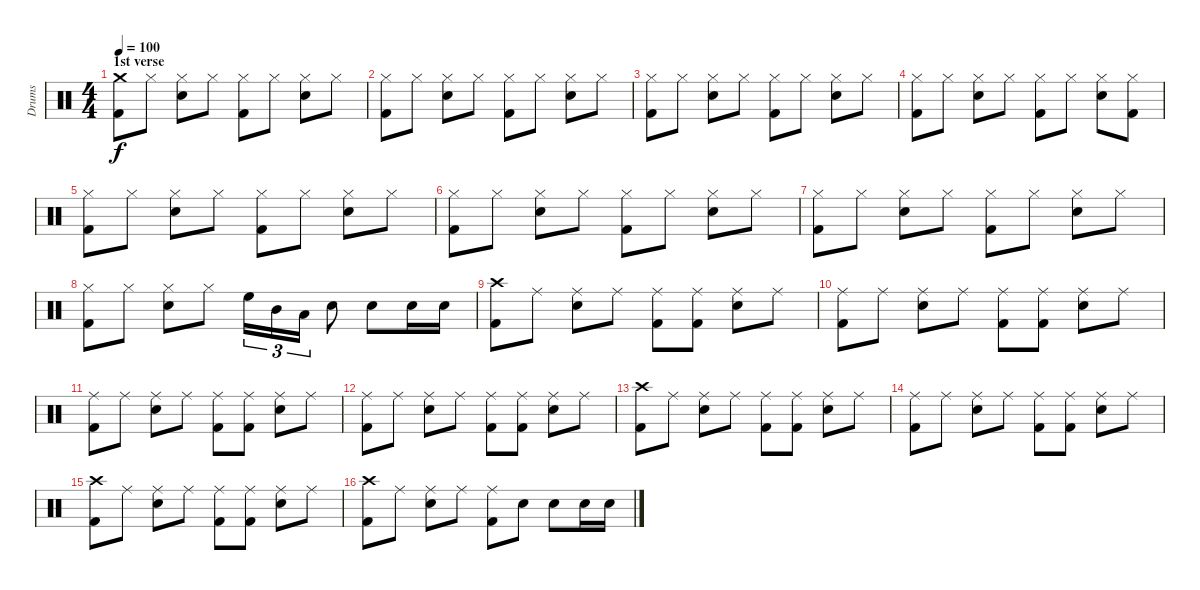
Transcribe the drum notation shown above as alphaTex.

\track ("Drums" "Drums") {instrument percussion}
\staff {score}
\articulation defaults
\ts (4 4)
\section ("" "1st verse")
\tempo 100
\clef neutral
\ks c
("Crash medium (hit)" "Kick (hit) 2").8{dy f} "Hi-Hat (closed)".8 ("Hi-Hat (closed)" "Snare (hit) 2").8 "Hi-Hat (closed)".8 ("Hi-Hat (closed)" "Kick (hit) 2").8 "Hi-Hat (closed)".8 ("Hi-Hat (closed)" "Snare (hit) 2").8 "Hi-Hat (closed)".8 |
("Hi-Hat (closed)" "Kick (hit) 2").8 "Hi-Hat (closed)".8 ("Hi-Hat (closed)" "Snare (hit) 2").8 "Hi-Hat (closed)".8 ("Hi-Hat (closed)" "Kick (hit) 2").8 "Hi-Hat (closed)".8 ("Hi-Hat (closed)" "Snare (hit) 2").8 "Hi-Hat (closed)".8 |
("Hi-Hat (closed)" "Kick (hit) 2").8 "Hi-Hat (closed)".8 ("Hi-Hat (closed)" "Snare (hit) 2").8 "Hi-Hat (closed)".8 ("Hi-Hat (closed)" "Kick (hit) 2").8 "Hi-Hat (closed)".8 ("Hi-Hat (closed)" "Snare (hit) 2").8 "Hi-Hat (closed)".8 |
("Hi-Hat (closed)" "Kick (hit) 2").8 "Hi-Hat (closed)".8 ("Hi-Hat (closed)" "Snare (hit) 2").8 "Hi-Hat (closed)".8 ("Hi-Hat (closed)" "Kick (hit) 2").8 "Hi-Hat (closed)".8 ("Hi-Hat (closed)" "Snare (hit) 2").8 ("Hi-Hat (closed)" "Kick (hit) 2").8 |
("Hi-Hat (closed)" "Kick (hit) 2").8 "Hi-Hat (closed)".8 ("Hi-Hat (closed)" "Snare (hit) 2").8 "Hi-Hat (closed)".8 ("Hi-Hat (closed)" "Kick (hit) 2").8 "Hi-Hat (closed)".8 ("Hi-Hat (closed)" "Snare (hit) 2").8 "Hi-Hat (closed)".8 |
("Hi-Hat (closed)" "Kick (hit) 2").8 "Hi-Hat (closed)".8 ("Hi-Hat (closed)" "Snare (hit) 2").8 "Hi-Hat (closed)".8 ("Hi-Hat (closed)" "Kick (hit) 2").8 "Hi-Hat (closed)".8 ("Hi-Hat (closed)" "Snare (hit) 2").8 "Hi-Hat (closed)".8 |
("Hi-Hat (closed)" "Kick (hit) 2").8 "Hi-Hat (closed)".8 ("Hi-Hat (closed)" "Snare (hit) 2").8 "Hi-Hat (closed)".8 ("Hi-Hat (closed)" "Kick (hit) 2").8 "Hi-Hat (closed)".8 ("Hi-Hat (closed)" "Snare (hit) 2").8 "Hi-Hat (closed)".8 |
("Hi-Hat (closed)" "Kick (hit) 2").8 "Hi-Hat (closed)".8 ("Hi-Hat (closed)" "Snare (hit) 2").8 "Hi-Hat (closed)".8 "High Floor Tom (hit)".16{tu (3 2)} "Mid Tom (hit)".16{tu (3 2)} "Low Tom (hit)".16{tu (3 2)} "Snare (hit) 2".8 "Snare (hit) 2".8 "Snare (hit) 2".16 "Snare (hit) 2".16 |
("Crash high (hit)" "Kick (hit) 2").8 "Ride (middle)".8 ("Ride (middle)" "Snare (hit) 2").8 "Ride (middle)".8 ("Ride (middle)" "Kick (hit) 2").8 ("Ride (middle)" "Kick (hit) 2").8 ("Ride (middle)" "Snare (hit) 2").8 "Ride (middle)".8 |
("Ride (middle)" "Kick (hit) 2").8 "Ride (middle)".8 ("Ride (middle)" "Snare (hit) 2").8 "Ride (middle)".8 ("Ride (middle)" "Kick (hit) 2").8 ("Ride (middle)" "Kick (hit) 2").8 ("Ride (middle)" "Snare (hit) 2").8 "Ride (middle)".8 |
("Ride (middle)" "Kick (hit) 2").8 "Ride (middle)".8 ("Ride (middle)" "Snare (hit) 2").8 "Ride (middle)".8 ("Ride (middle)" "Kick (hit) 2").8 ("Ride (middle)" "Kick (hit) 2").8 ("Ride (middle)" "Snare (hit) 2").8 "Ride (middle)".8 |
("Ride (middle)" "Kick (hit) 2").8 "Ride (middle)".8 ("Ride (middle)" "Snare (hit) 2").8 "Ride (middle)".8 ("Ride (middle)" "Kick (hit) 2").8 ("Ride (middle)" "Kick (hit) 2").8 ("Ride (middle)" "Snare (hit) 2").8 "Ride (middle)".8 |
("Crash high (hit)" "Kick (hit) 2").8 "Ride (middle)".8 ("Ride (middle)" "Snare (hit) 2").8 "Ride (middle)".8 ("Ride (middle)" "Kick (hit) 2").8 ("Ride (middle)" "Kick (hit) 2").8 ("Ride (middle)" "Snare (hit) 2").8 "Ride (middle)".8 |
("Ride (middle)" "Kick (hit) 2").8 "Ride (middle)".8 ("Ride (middle)" "Snare (hit) 2").8 "Ride (middle)".8 ("Ride (middle)" "Kick (hit) 2").8 ("Ride (middle)" "Kick (hit) 2").8 ("Ride (middle)" "Snare (hit) 2").8 "Ride (middle)".8 |
("Crash high (hit)" "Kick (hit) 2").8 "Ride (middle)".8 ("Ride (middle)" "Snare (hit) 2").8 "Ride (middle)".8 ("Ride (middle)" "Kick (hit) 2").8 ("Ride (middle)" "Kick (hit) 2").8 ("Ride (middle)" "Snare (hit) 2").8 "Ride (middle)".8 |
("Crash high (hit)" "Kick (hit) 2").8 "Ride (middle)".8 ("Ride (middle)" "Snare (hit) 2").8 "Ride (middle)".8 ("Ride (middle)" "Kick (hit) 2").8 "Snare (hit) 2".8 "Snare (hit) 2".8 "Snare (hit) 2".16 "Snare (hit) 2".16
